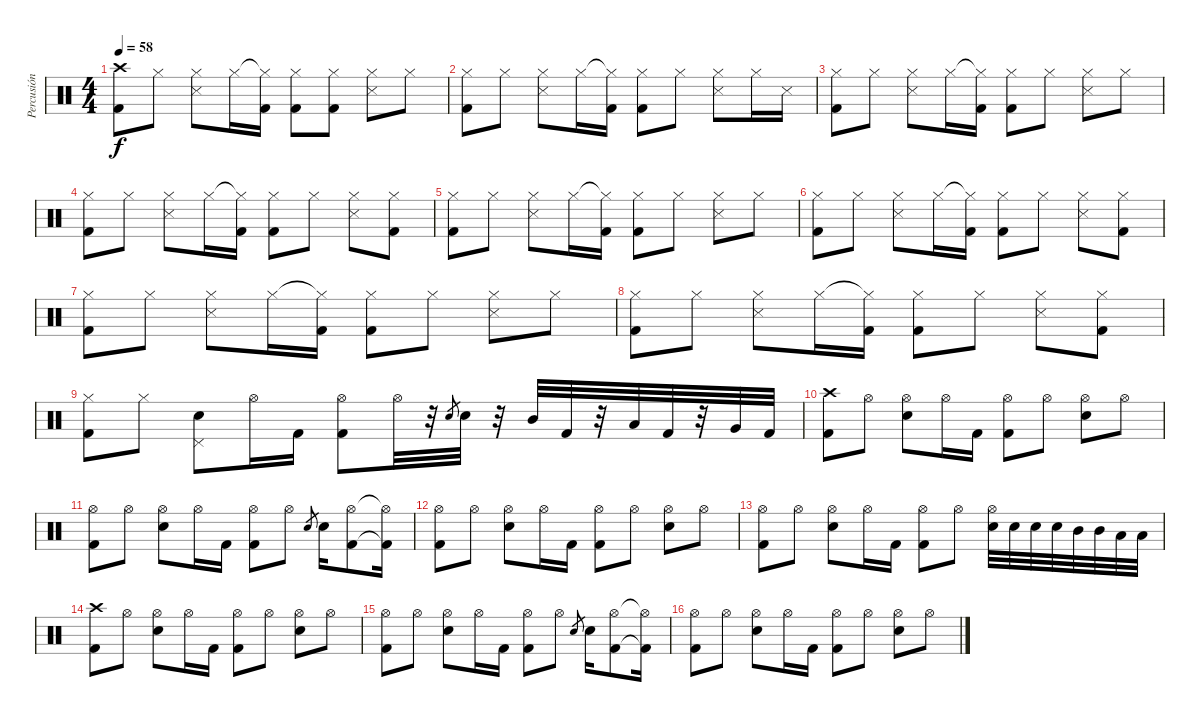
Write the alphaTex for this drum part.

\track ("Percusión" "Percusión") {instrument percussion}
\staff {score}
\articulation defaults
\ts (4 4)
\tempo 58
\clef neutral
\ks c
("Crash high (hit)" "Kick (hit) 2").8{dy f} "Hi-Hat (closed)".8 ("Hi-Hat (closed)" "Snare (side stick) 3").8 "Hi-Hat (closed)".16 ("Hi-Hat (closed)"{t} "Kick (hit) 2").16 ("Hi-Hat (closed)" "Kick (hit) 2").8 ("Hi-Hat (closed)" "Kick (hit) 2").8 ("Hi-Hat (closed)" "Snare (side stick) 3").8 "Hi-Hat (closed)".8 |
("Hi-Hat (closed)" "Kick (hit) 2").8 "Hi-Hat (closed)".8 ("Hi-Hat (closed)" "Snare (side stick) 3").8 "Hi-Hat (closed)".16 ("Hi-Hat (closed)"{t} "Kick (hit) 2").16 ("Hi-Hat (closed)" "Kick (hit) 2").8 "Hi-Hat (closed)".8 ("Hi-Hat (closed)" "Snare (side stick) 3").8 "Hi-Hat (closed)".16 "Snare (side stick) 3".16 |
("Hi-Hat (closed)" "Kick (hit) 2").8 "Hi-Hat (closed)".8 ("Hi-Hat (closed)" "Snare (side stick) 3").8 "Hi-Hat (closed)".16 ("Hi-Hat (closed)"{t} "Kick (hit) 2").16 ("Hi-Hat (closed)" "Kick (hit) 2").8 "Hi-Hat (closed)".8 ("Hi-Hat (closed)" "Snare (side stick) 3").8 "Hi-Hat (closed)".8 |
("Hi-Hat (closed)" "Kick (hit) 2").8 "Hi-Hat (closed)".8 ("Hi-Hat (closed)" "Snare (side stick) 3").8 "Hi-Hat (closed)".16 ("Hi-Hat (closed)"{t} "Kick (hit) 2").16 ("Hi-Hat (closed)" "Kick (hit) 2").8 "Hi-Hat (closed)".8 ("Hi-Hat (closed)" "Snare (side stick) 3").8 ("Hi-Hat (closed)" "Kick (hit) 2").8 |
("Hi-Hat (closed)" "Kick (hit) 2").8 "Hi-Hat (closed)".8 ("Hi-Hat (closed)" "Snare (side stick) 3").8 "Hi-Hat (closed)".16 ("Hi-Hat (closed)"{t} "Kick (hit) 2").16 ("Hi-Hat (closed)" "Kick (hit) 2").8 "Hi-Hat (closed)".8 ("Hi-Hat (closed)" "Snare (side stick) 3").8 "Hi-Hat (closed)".8 |
("Hi-Hat (closed)" "Kick (hit) 2").8 "Hi-Hat (closed)".8 ("Hi-Hat (closed)" "Snare (side stick) 3").8 "Hi-Hat (closed)".16 ("Hi-Hat (closed)"{t} "Kick (hit) 2").16 ("Hi-Hat (closed)" "Kick (hit) 2").8 "Hi-Hat (closed)".8 ("Hi-Hat (closed)" "Snare (side stick) 3").8 ("Hi-Hat (closed)" "Kick (hit) 2").8 |
("Hi-Hat (closed)" "Kick (hit) 2").8 "Hi-Hat (closed)".8 ("Hi-Hat (closed)" "Snare (side stick) 3").8 "Hi-Hat (closed)".16 ("Hi-Hat (closed)"{t} "Kick (hit) 2").16 ("Hi-Hat (closed)" "Kick (hit) 2").8 "Hi-Hat (closed)".8 ("Hi-Hat (closed)" "Snare (side stick) 3").8 "Hi-Hat (closed)".8 |
("Hi-Hat (closed)" "Kick (hit) 2").8 "Hi-Hat (closed)".8 ("Hi-Hat (closed)" "Snare (side stick) 3").8 "Hi-Hat (closed)".16 ("Hi-Hat (closed)"{t} "Kick (hit) 2").16 ("Hi-Hat (closed)" "Kick (hit) 2").8 "Hi-Hat (closed)".8 ("Hi-Hat (closed)" "Snare (side stick) 3").8 ("Hi-Hat (closed)" "Kick (hit) 2").8 |
("Hi-Hat (closed)" "Kick (hit) 2").8 "Hi-Hat (closed)".8 ("Pedal Hi-Hat (hit)" "Electric Snare (hit)").8 "Hi-Hat (open)".16 "Kick (hit) 2".16 ("Hi-Hat (open)" "Kick (hit) 2").8 "Hi-Hat (open)".32 r.32 "Electric Snare (hit)".8{gr} "Electric Snare (hit)".32 r.32 "Mid Tom (hit)".32 "Kick (hit) 2".32 r.32 "Low Tom (hit)".32 "Kick (hit) 2".32 r.32 "Very Low Tom (hit)".32 "Kick (hit) 2".32 |
("Crash high (hit)" "Kick (hit) 2").8 "Hi-Hat (open)".8 ("Hi-Hat (open)" "Electric Snare (hit)").8 "Hi-Hat (open)".16 "Kick (hit) 2".16 ("Hi-Hat (open)" "Kick (hit) 2").8 "Hi-Hat (open)".8 ("Hi-Hat (open)" "Electric Snare (hit)").8 "Hi-Hat (open)".8 |
("Hi-Hat (open)" "Kick (hit) 2").8 "Hi-Hat (open)".8 ("Hi-Hat (open)" "Electric Snare (hit)").8 "Hi-Hat (open)".16 "Kick (hit) 2".16 ("Hi-Hat (open)" "Kick (hit) 2").8 "Hi-Hat (open)".8 "Electric Snare (hit)".8{gr} "Electric Snare (hit)".16 ("Hi-Hat (open)" "Kick (hit) 2").8 ("Hi-Hat (open)"{t} "Kick (hit) 2"{t}).16 |
("Hi-Hat (open)" "Kick (hit) 2").8 "Hi-Hat (open)".8 ("Hi-Hat (open)" "Electric Snare (hit)").8 "Hi-Hat (open)".16 "Kick (hit) 2".16 ("Hi-Hat (open)" "Kick (hit) 2").8 "Hi-Hat (open)".8 ("Hi-Hat (open)" "Electric Snare (hit)").8 "Hi-Hat (open)".8 |
("Hi-Hat (open)" "Kick (hit) 2").8 "Hi-Hat (open)".8 ("Hi-Hat (open)" "Electric Snare (hit)").8 "Hi-Hat (open)".16 "Kick (hit) 2".16 ("Hi-Hat (open)" "Kick (hit) 2").8 "Hi-Hat (open)".8 ("Hi-Hat (open)" "Electric Snare (hit)").32 "Electric Snare (hit)".32 "Electric Snare (hit)".32 "Electric Snare (hit)".32 "Mid Tom (hit)".32 "Mid Tom (hit)".32 "Low Tom (hit)".32 "Low Tom (hit)".32 |
("Crash high (hit)" "Kick (hit) 2").8 "Hi-Hat (open)".8 ("Hi-Hat (open)" "Electric Snare (hit)").8 "Hi-Hat (open)".16 "Kick (hit) 2".16 ("Hi-Hat (open)" "Kick (hit) 2").8 "Hi-Hat (open)".8 ("Hi-Hat (open)" "Electric Snare (hit)").8 "Hi-Hat (open)".8 |
("Hi-Hat (open)" "Kick (hit) 2").8 "Hi-Hat (open)".8 ("Hi-Hat (open)" "Electric Snare (hit)").8 "Hi-Hat (open)".16 "Kick (hit) 2".16 ("Hi-Hat (open)" "Kick (hit) 2").8 "Hi-Hat (open)".8 "Electric Snare (hit)".8{gr} "Electric Snare (hit)".16 ("Hi-Hat (open)" "Kick (hit) 2").8 ("Hi-Hat (open)"{t} "Kick (hit) 2"{t}).16 |
("Hi-Hat (open)" "Kick (hit) 2").8 "Hi-Hat (open)".8 ("Hi-Hat (open)" "Electric Snare (hit)").8 "Hi-Hat (open)".16 "Kick (hit) 2".16 ("Hi-Hat (open)" "Kick (hit) 2").8 "Hi-Hat (open)".8 ("Hi-Hat (open)" "Electric Snare (hit)").8 "Hi-Hat (open)".8
